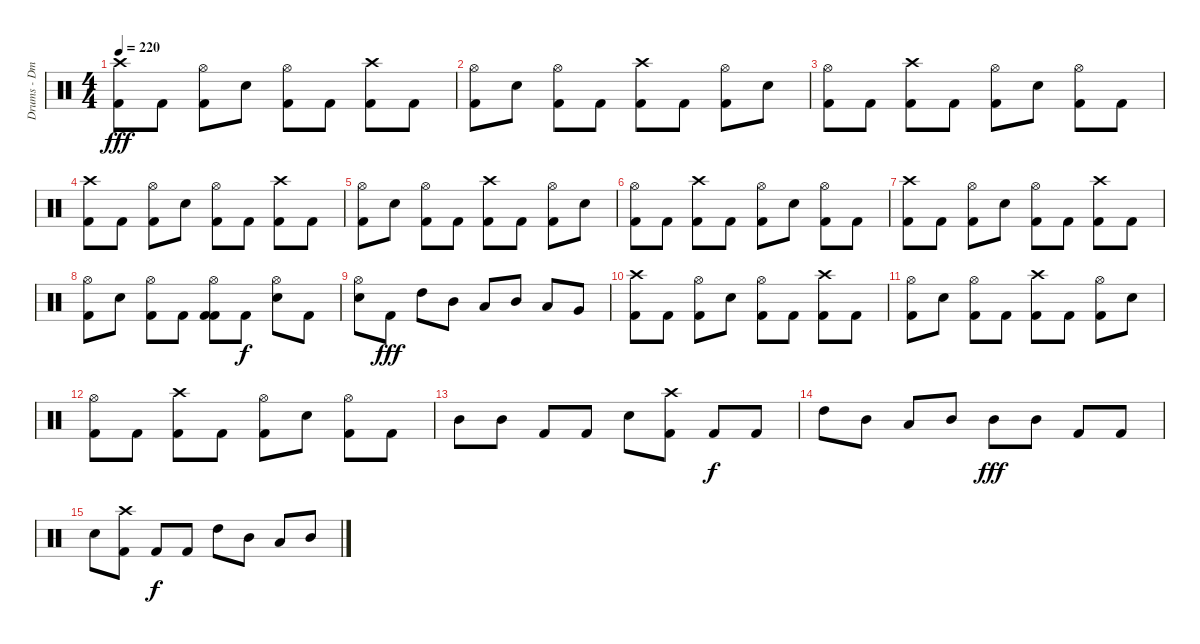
\track ("Drums - Dmitriy Krivenkov" "Drums - Dm") {instrument percussion}
\staff {score}
\articulation defaults
\ts (4 4)
\tempo 220
\clef neutral
\ks c
("Crash high (hit)" "Kick (hit) 2").8{dy fff} "Kick (hit) 2".8 ("Hi-Hat (open)" "Kick (hit) 2").8 "Electric Snare (hit)".8 ("Hi-Hat (open)" "Kick (hit) 2").8 "Kick (hit) 2".8 ("Crash high (hit)" "Kick (hit) 2").8 "Kick (hit) 2".8 |
("Hi-Hat (open)" "Kick (hit) 2").8 "Electric Snare (hit)".8 ("Hi-Hat (open)" "Kick (hit) 2").8 "Kick (hit) 2".8 ("Crash high (hit)" "Kick (hit) 2").8 "Kick (hit) 2".8 ("Hi-Hat (open)" "Kick (hit) 2").8 "Electric Snare (hit)".8 |
("Hi-Hat (open)" "Kick (hit) 2").8 "Kick (hit) 2".8 ("Crash high (hit)" "Kick (hit) 2").8 "Kick (hit) 2".8 ("Hi-Hat (open)" "Kick (hit) 2").8 "Electric Snare (hit)".8 ("Hi-Hat (open)" "Kick (hit) 2").8 "Kick (hit) 2".8 |
("Crash high (hit)" "Kick (hit) 2").8 "Kick (hit) 2".8 ("Hi-Hat (open)" "Kick (hit) 2").8 "Electric Snare (hit)".8 ("Hi-Hat (open)" "Kick (hit) 2").8 "Kick (hit) 2".8 ("Crash high (hit)" "Kick (hit) 2").8 "Kick (hit) 2".8 |
("Hi-Hat (open)" "Kick (hit) 2").8 "Electric Snare (hit)".8 ("Hi-Hat (open)" "Kick (hit) 2").8 "Kick (hit) 2".8 ("Crash high (hit)" "Kick (hit) 2").8 "Kick (hit) 2".8 ("Hi-Hat (open)" "Kick (hit) 2").8 "Electric Snare (hit)".8 |
("Hi-Hat (open)" "Kick (hit) 2").8 "Kick (hit) 2".8 ("Crash high (hit)" "Kick (hit) 2").8 "Kick (hit) 2".8 ("Hi-Hat (open)" "Kick (hit) 2").8 "Electric Snare (hit)".8 ("Hi-Hat (open)" "Kick (hit) 2").8 "Kick (hit) 2".8 |
("Crash high (hit)" "Kick (hit) 2").8 "Kick (hit) 2".8 ("Hi-Hat (open)" "Kick (hit) 2").8 "Electric Snare (hit)".8 ("Hi-Hat (open)" "Kick (hit) 2").8 "Kick (hit) 2".8 ("Crash high (hit)" "Kick (hit) 2").8 "Kick (hit) 2".8 |
("Hi-Hat (open)" "Kick (hit) 2").8 "Electric Snare (hit)".8 ("Hi-Hat (open)" "Kick (hit) 2").8 "Kick (hit) 2".8 ("Kick (hit) 2" "Hi-Hat (open)" "Kick (hit) 2").8 "Kick (hit) 2".8{dy f} ("Electric Snare (hit)" "Hi-Hat (open)").8 "Kick (hit) 2".8 |
("Electric Snare (hit)" "Hi-Hat (open)").8 "Kick (hit) 2".8{dy fff} "High Tom (hit)".8 "Mid Tom (hit)".8 "Low Tom (hit)".8 "Mid Tom (hit)".8 "Low Tom (hit)".8 "Very Low Tom (hit)".8 |
("Crash high (hit)" "Kick (hit) 2").8 "Kick (hit) 2".8 ("Hi-Hat (open)" "Kick (hit) 2").8 "Electric Snare (hit)".8 ("Hi-Hat (open)" "Kick (hit) 2").8 "Kick (hit) 2".8 ("Crash high (hit)" "Kick (hit) 2").8 "Kick (hit) 2".8 |
("Hi-Hat (open)" "Kick (hit) 2").8 "Electric Snare (hit)".8 ("Hi-Hat (open)" "Kick (hit) 2").8 "Kick (hit) 2".8 ("Crash high (hit)" "Kick (hit) 2").8 "Kick (hit) 2".8 ("Hi-Hat (open)" "Kick (hit) 2").8 "Electric Snare (hit)".8 |
("Hi-Hat (open)" "Kick (hit) 2").8 "Kick (hit) 2".8 ("Crash high (hit)" "Kick (hit) 2").8 "Kick (hit) 2".8 ("Hi-Hat (open)" "Kick (hit) 2").8 "Electric Snare (hit)".8 ("Hi-Hat (open)" "Kick (hit) 2").8 "Kick (hit) 2".8 |
"Mid Tom (hit)".8 "Mid Tom (hit)".8 "Kick (hit) 2".8 "Kick (hit) 2".8 "Electric Snare (hit)".8 ("Crash high (hit)" "Kick (hit) 2").8 "Kick (hit) 2".8{dy f} "Kick (hit) 2".8 |
"High Tom (hit)".8 "Mid Tom (hit)".8 "Low Tom (hit)".8 "Mid Tom (hit)".8 "Mid Tom (hit)".8{dy fff} "Mid Tom (hit)".8 "Kick (hit) 2".8 "Kick (hit) 2".8 |
"Electric Snare (hit)".8 ("Crash high (hit)" "Kick (hit) 2").8 "Kick (hit) 2".8{dy f} "Kick (hit) 2".8 "High Tom (hit)".8 "Mid Tom (hit)".8 "Low Tom (hit)".8 "Mid Tom (hit)".8
